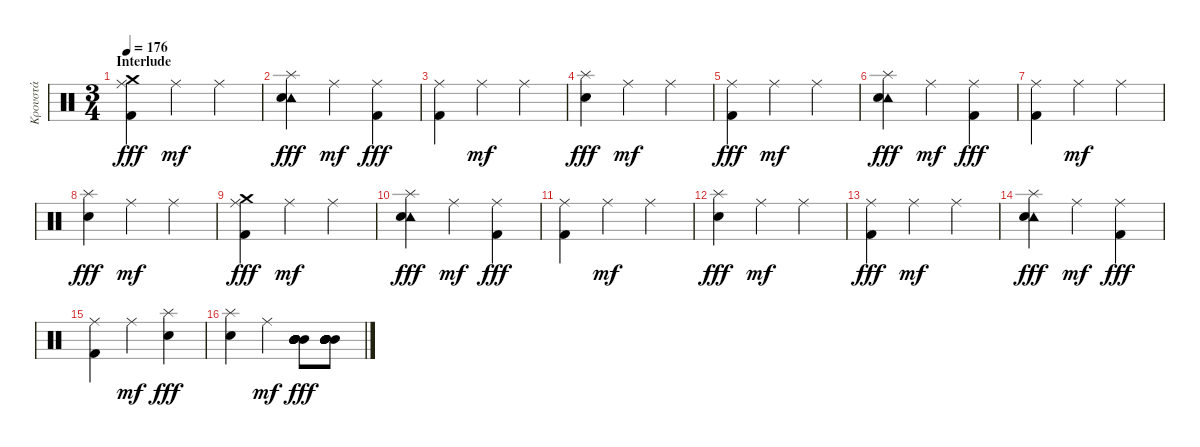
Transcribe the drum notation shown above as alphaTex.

\track ("Κρουστά" "Κρουστά") {instrument percussion}
\staff {score}
\articulation defaults
\ts (3 4)
\section ("" "Interlude")
\tempo 176
\clef neutral
\ks c
("Crash medium (hit)" "Ride (middle)" "Kick (hit) 2").4{dy fff} "Ride (middle)".4{dy mf} "Ride (middle)".4 |
("Splash (hit)" "Tambourine (hit)" "Snare (hit) 2").4{dy fff} "Ride (middle)".4{dy mf} ("Ride (middle)" "Kick (hit) 2").4{dy fff} |
("Ride (middle)" "Kick (hit) 2").4 "Ride (middle)".4{dy mf} "Ride (middle)".4 |
("Splash (hit)" "Snare (hit) 2").4{dy fff} "Ride (middle)".4{dy mf} "Ride (middle)".4 |
("Ride (middle)" "Kick (hit) 2").4{dy fff} "Ride (middle)".4{dy mf} "Ride (middle)".4 |
("Splash (hit)" "Tambourine (hit)" "Snare (hit) 2").4{dy fff} "Ride (middle)".4{dy mf} ("Ride (middle)" "Kick (hit) 2").4{dy fff} |
("Ride (middle)" "Kick (hit) 2").4 "Ride (middle)".4{dy mf} "Ride (middle)".4 |
("Splash (hit)" "Snare (hit) 2").4{dy fff} "Ride (middle)".4{dy mf} "Ride (middle)".4 |
("Crash medium (hit)" "Ride (middle)" "Kick (hit) 2").4{dy fff} "Ride (middle)".4{dy mf} "Ride (middle)".4 |
("Splash (hit)" "Tambourine (hit)" "Snare (hit) 2").4{dy fff} "Ride (middle)".4{dy mf} ("Ride (middle)" "Kick (hit) 2").4{dy fff} |
("Ride (middle)" "Kick (hit) 2").4 "Ride (middle)".4{dy mf} "Ride (middle)".4 |
("Splash (hit)" "Snare (hit) 2").4{dy fff} "Ride (middle)".4{dy mf} "Ride (middle)".4 |
("Ride (middle)" "Kick (hit) 2").4{dy fff} "Ride (middle)".4{dy mf} "Ride (middle)".4 |
("Splash (hit)" "Tambourine (hit)" "Snare (hit) 2").4{dy fff} "Ride (middle)".4{dy mf} ("Ride (middle)" "Kick (hit) 2").4{dy fff} |
("Ride (middle)" "Kick (hit) 2").4 "Ride (middle)".4{dy mf} ("Splash (hit)" "Snare (hit) 2").4{dy fff} |
("Splash (hit)" "Snare (hit) 2").4 "Ride (middle)".4{dy mf} ("Mid Tom (hit)" "Mid Tom (hit)" "Mid Tom (hit)" "Mid Tom (hit)" "Mid Tom (hit)" "Mid Tom (hit)").8{dy fff} ("Mid Tom (hit)" "Mid Tom (hit)" "Mid Tom (hit)" "Mid Tom (hit)" "Mid Tom (hit)" "Mid Tom (hit)").8
